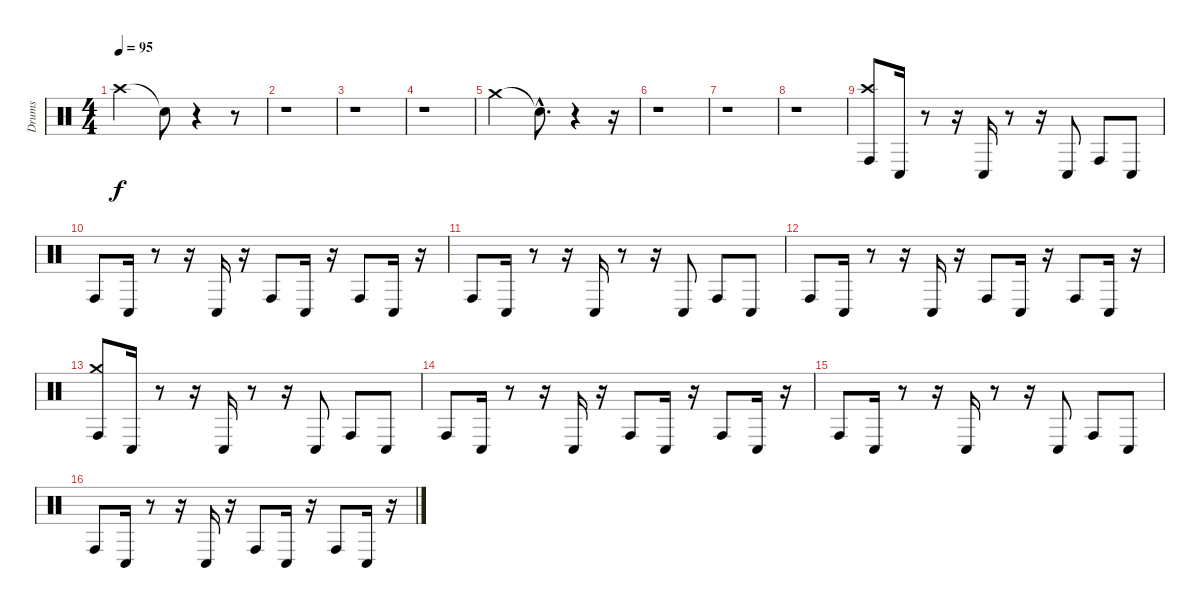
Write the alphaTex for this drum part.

\track ("Drums" "Drums") {instrument percussion}
\staff {score}
\articulation defaults
\ts (4 4)
\tempo 95
\clef neutral
\ks c "Crash high (hit)".2{dy f} "Snare (hit)"{t}.8
r.4 r.8 |
r.1 |
r.1 |
r.1 |
"Crash medium (hit)".2 "Snare (hit)"{hac t}.8{d} r.4 r.16 |
r.1 |
r.1 |
r.1 |
("Conga high (hit)" "Crash high (hit)").8 "Conga low (hit)".16 r.8 r.16 "Conga low (hit)".16 r.8 r.16 "Conga low (hit)".8 "Conga high (hit)".8 "Conga low (hit)".8 |
"Conga high (hit)".8 "Conga low (hit)".16 r.8 r.16 "Conga low (hit)".16 r.16 "Conga high (hit)".8 "Conga low (hit)".16 r.16 "Conga high (hit)".8 "Conga low (hit)".16 r.16 |
"Conga high (hit)".8 "Conga low (hit)".16 r.8 r.16 "Conga low (hit)".16 r.8 r.16 "Conga low (hit)".8 "Conga high (hit)".8 "Conga low (hit)".8 |
"Conga high (hit)".8 "Conga low (hit)".16 r.8 r.16 "Conga low (hit)".16 r.16 "Conga high (hit)".8 "Conga low (hit)".16 r.16 "Conga high (hit)".8 "Conga low (hit)".16 r.16 |
("Crash medium (hit)" "Conga high (hit)").8 "Conga low (hit)".16 r.8 r.16 "Conga low (hit)".16 r.8 r.16 "Conga low (hit)".8 "Conga high (hit)".8 "Conga low (hit)".8 |
"Conga high (hit)".8 "Conga low (hit)".16 r.8 r.16 "Conga low (hit)".16 r.16 "Conga high (hit)".8 "Conga low (hit)".16 r.16 "Conga high (hit)".8 "Conga low (hit)".16 r.16 |
"Conga high (hit)".8 "Conga low (hit)".16 r.8 r.16 "Conga low (hit)".16 r.8 r.16 "Conga low (hit)".8 "Conga high (hit)".8 "Conga low (hit)".8 |
"Conga high (hit)".8 "Conga low (hit)".16 r.8 r.16 "Conga low (hit)".16 r.16 "Conga high (hit)".8 "Conga low (hit)".16 r.16 "Conga high (hit)".8 "Conga low (hit)".16 r.16
